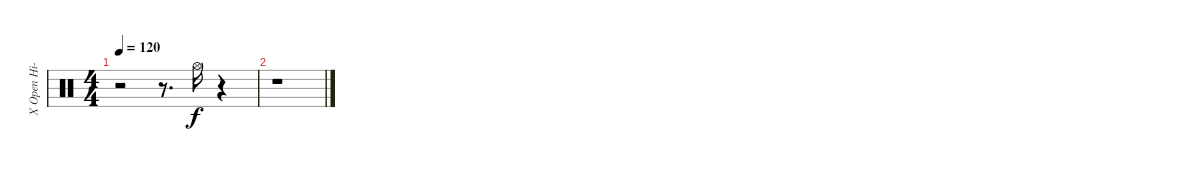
\track ("X Open Hi-Hat       " "X Open Hi-") {instrument percussion}
\staff {score}
\articulation defaults
\ts (4 4)
\tempo 120
\clef neutral
\ks c
r.2{dy f} r.8{d} "Hi-Hat (open)".16 r.4 |
r.1
